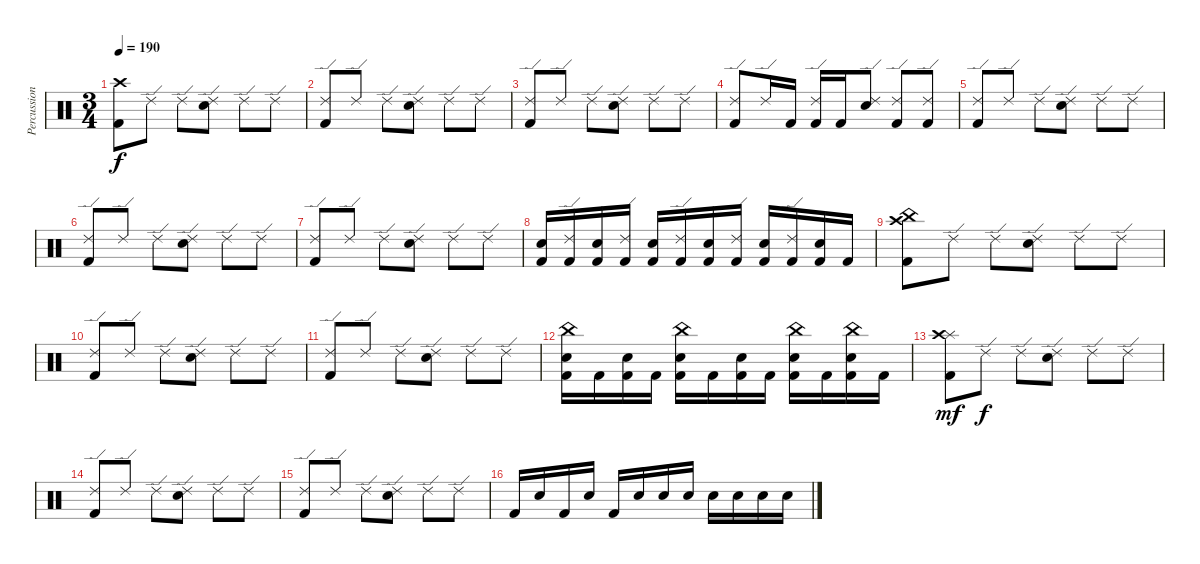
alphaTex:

\track ("Percussion" "Percussion") {instrument percussion}
\staff {score}
\articulation defaults
\ts (3 4)
\tempo 190
\clef neutral
\ks c
("Crash high (hit)" "Kick (hit) 2").8{dy f} "Ride (edge) 2".8 "Ride (edge) 2".8 ("Ride (edge) 2" "Electric Snare (hit)").8 "Ride (edge) 2".8 "Ride (edge) 2".8 |
("Ride (edge) 2" "Kick (hit) 2").8 "Ride (edge) 2".8 "Ride (edge) 2".8 ("Ride (edge) 2" "Electric Snare (hit)").8 "Ride (edge) 2".8 "Ride (edge) 2".8 |
("Ride (edge) 2" "Kick (hit) 2").8 "Ride (edge) 2".8 "Ride (edge) 2".8 ("Ride (edge) 2" "Electric Snare (hit)").8 "Ride (edge) 2".8 "Ride (edge) 2".8 |
("Ride (edge) 2" "Kick (hit) 2").8 "Ride (edge) 2".16 "Kick (hit) 2".16 ("Ride (edge) 2" "Kick (hit) 2").16 "Kick (hit) 2".16 ("Ride (edge) 2" "Electric Snare (hit)").8 ("Ride (edge) 2" "Kick (hit) 2").8 ("Ride (edge) 2" "Kick (hit) 2").8 |
("Ride (edge) 2" "Kick (hit) 2").8 "Ride (edge) 2".8 "Ride (edge) 2".8 ("Ride (edge) 2" "Electric Snare (hit)").8 "Ride (edge) 2".8 "Ride (edge) 2".8 |
("Ride (edge) 2" "Kick (hit) 2").8 "Ride (edge) 2".8 "Ride (edge) 2".8 ("Ride (edge) 2" "Electric Snare (hit)").8 "Ride (edge) 2".8 "Ride (edge) 2".8 |
("Ride (edge) 2" "Kick (hit) 2").8 "Ride (edge) 2".8 "Ride (edge) 2".8 ("Ride (edge) 2" "Electric Snare (hit)").8 "Ride (edge) 2".8 "Ride (edge) 2".8 |
("Electric Snare (hit)" "Kick (hit) 2").16 ("Ride (edge) 2" "Kick (hit) 2").16 ("Electric Snare (hit)" "Kick (hit) 2").16 ("Ride (edge) 2" "Kick (hit) 2").16 ("Electric Snare (hit)" "Kick (hit) 2").16 ("Ride (edge) 2" "Kick (hit) 2").16 ("Electric Snare (hit)" "Kick (hit) 2").16 ("Ride (edge) 2" "Kick (hit) 2").16 ("Electric Snare (hit)" "Kick (hit) 2").16 ("Ride (edge) 2" "Kick (hit) 2").16 ("Electric Snare (hit)" "Kick (hit) 2").16 "Kick (hit) 2".16 |
("China (hit)" "Crash high (hit)" "Kick (hit) 2").8 "Ride (edge) 2".8 "Ride (edge) 2".8 ("Ride (edge) 2" "Electric Snare (hit)").8 "Ride (edge) 2".8 "Ride (edge) 2".8 |
("Ride (edge) 2" "Kick (hit) 2").8 "Ride (edge) 2".8 "Ride (edge) 2".8 ("Ride (edge) 2" "Electric Snare (hit)").8 "Ride (edge) 2".8 "Ride (edge) 2".8 |
("Ride (edge) 2" "Kick (hit) 2").8 "Ride (edge) 2".8 "Ride (edge) 2".8 ("Ride (edge) 2" "Electric Snare (hit)").8 "Ride (edge) 2".8 "Ride (edge) 2".8 |
("China (hit)" "Electric Snare (hit)" "Kick (hit) 2").16 "Kick (hit) 2".16 ("Electric Snare (hit)" "Kick (hit) 2").16 "Kick (hit) 2".16 ("China (hit)" "Electric Snare (hit)" "Kick (hit) 2").16 "Kick (hit) 2".16 ("Electric Snare (hit)" "Kick (hit) 2").16 "Kick (hit) 2".16 ("China (hit)" "Electric Snare (hit)" "Kick (hit) 2").16 "Kick (hit) 2".16 ("China (hit)" "Electric Snare (hit)" "Kick (hit) 2").16 "Kick (hit) 2".16 |
("Splash (hit)" "Crash high (hit)" "Kick (hit) 2").8{dy mf} "Ride (edge) 2".8{dy f} "Ride (edge) 2".8 ("Ride (edge) 2" "Electric Snare (hit)").8 "Ride (edge) 2".8 "Ride (edge) 2".8 |
("Ride (edge) 2" "Kick (hit) 2").8 "Ride (edge) 2".8 "Ride (edge) 2".8 ("Ride (edge) 2" "Electric Snare (hit)").8 "Ride (edge) 2".8 "Ride (edge) 2".8 |
("Ride (edge) 2" "Kick (hit) 2").8 "Ride (edge) 2".8 "Ride (edge) 2".8 ("Ride (edge) 2" "Electric Snare (hit)").8 "Ride (edge) 2".8 "Ride (edge) 2".8 |
"Kick (hit) 2".16 "Electric Snare (hit)".16 "Kick (hit) 2".16 "Electric Snare (hit)".16 "Kick (hit) 2".16 "Electric Snare (hit)".16 "Electric Snare (hit)".16 "Electric Snare (hit)".16 "Electric Snare (hit)".16 "Electric Snare (hit)".16 "Electric Snare (hit)".16 "Electric Snare (hit)".16
